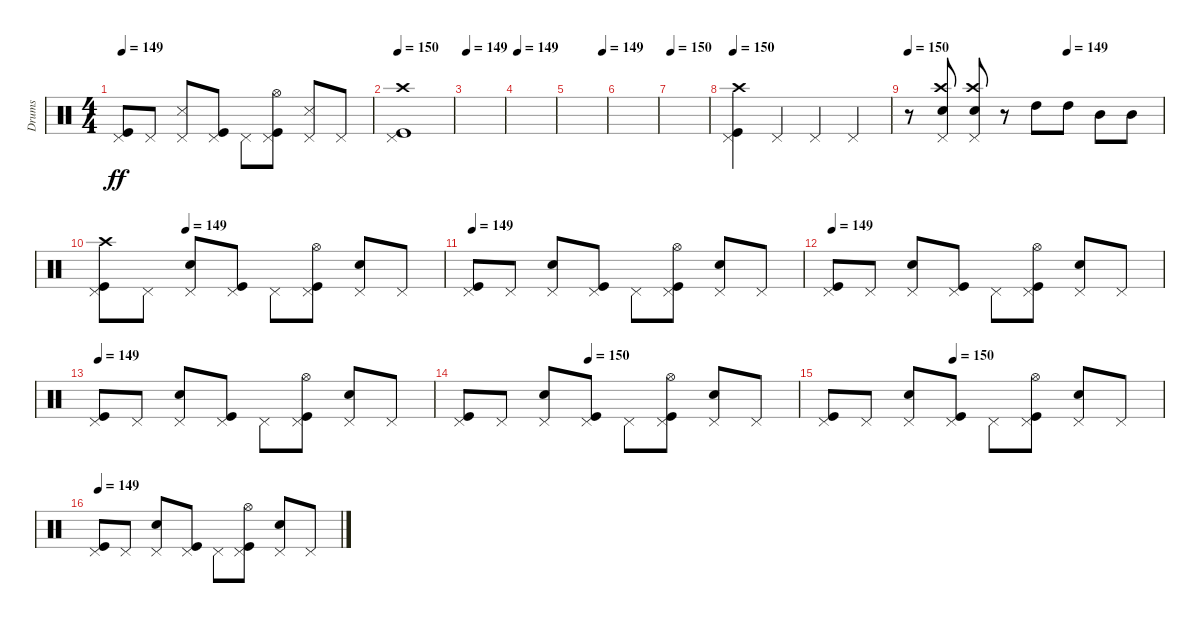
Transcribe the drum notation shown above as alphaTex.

\track ("Drums" "Drums") {instrument percussion}
\staff {score}
\articulation defaults
\ts (4 4)
\tempo 149
\clef neutral
\ks c
("Kick (hit)" "Pedal Hi-Hat (hit)").8{dy ff} "Pedal Hi-Hat (hit)".8 ("Pedal Hi-Hat (hit)" "Metronome (hit)").8 ("Kick (hit)" "Pedal Hi-Hat (hit)").8 "Pedal Hi-Hat (hit)".8 ("Kick (hit)" "Pedal Hi-Hat (hit)" "Hi-Hat (open)").8 ("Pedal Hi-Hat (hit)" "Metronome (hit)").8 "Pedal Hi-Hat (hit)".8 |
\tempo 150
("Kick (hit)" "Pedal Hi-Hat (hit)" "Crash high (hit)").1 |
\tempo 149
|
\tempo 149
|
\tempo (149 0.90625)
|
|
\tempo 150
|
\tempo 150
("Kick (hit)" "Pedal Hi-Hat (hit)" "Crash high (hit)").4 "Pedal Hi-Hat (hit)".4 "Pedal Hi-Hat (hit)".4 "Pedal Hi-Hat (hit)".4 |
\tempo 150
\tempo (149 0.625)
r.8 ("Pedal Hi-Hat (hit)" "Snare (hit) 2" "Crash high (hit)").8 ("Pedal Hi-Hat (hit)" "Snare (hit) 2" "Crash high (hit)").8 r.8 "High Tom (hit)".8 "High Tom (hit)".8 "Mid Tom (hit)".8 "Mid Tom (hit)".8 |
\tempo (149 0.25)
("Kick (hit)" "Pedal Hi-Hat (hit)" "Crash high (hit)").8 "Pedal Hi-Hat (hit)".8 ("Pedal Hi-Hat (hit)" "Snare (hit) 2").8 ("Kick (hit)" "Pedal Hi-Hat (hit)").8 "Pedal Hi-Hat (hit)".8 ("Kick (hit)" "Pedal Hi-Hat (hit)" "Hi-Hat (open)").8 ("Pedal Hi-Hat (hit)" "Snare (hit) 2").8 "Pedal Hi-Hat (hit)".8 |
\tempo 149
("Kick (hit)" "Pedal Hi-Hat (hit)").8 "Pedal Hi-Hat (hit)".8 ("Pedal Hi-Hat (hit)" "Snare (hit) 2").8 ("Kick (hit)" "Pedal Hi-Hat (hit)").8 "Pedal Hi-Hat (hit)".8 ("Kick (hit)" "Pedal Hi-Hat (hit)" "Hi-Hat (open)").8 ("Pedal Hi-Hat (hit)" "Snare (hit) 2").8 "Pedal Hi-Hat (hit)".8 |
\tempo 149
("Kick (hit)" "Pedal Hi-Hat (hit)").8 "Pedal Hi-Hat (hit)".8 ("Pedal Hi-Hat (hit)" "Snare (hit) 2").8 ("Kick (hit)" "Pedal Hi-Hat (hit)").8 "Pedal Hi-Hat (hit)".8 ("Kick (hit)" "Pedal Hi-Hat (hit)" "Hi-Hat (open)").8 ("Pedal Hi-Hat (hit)" "Snare (hit) 2").8 "Pedal Hi-Hat (hit)".8 |
\tempo 149
("Kick (hit)" "Pedal Hi-Hat (hit)").8 "Pedal Hi-Hat (hit)".8 ("Pedal Hi-Hat (hit)" "Snare (hit) 2").8 ("Kick (hit)" "Pedal Hi-Hat (hit)").8 "Pedal Hi-Hat (hit)".8 ("Kick (hit)" "Pedal Hi-Hat (hit)" "Hi-Hat (open)").8 ("Pedal Hi-Hat (hit)" "Snare (hit) 2").8 "Pedal Hi-Hat (hit)".8 |
\tempo (150 0.375)
("Kick (hit)" "Pedal Hi-Hat (hit)").8 "Pedal Hi-Hat (hit)".8 ("Pedal Hi-Hat (hit)" "Snare (hit) 2").8 ("Kick (hit)" "Pedal Hi-Hat (hit)").8 "Pedal Hi-Hat (hit)".8 ("Kick (hit)" "Pedal Hi-Hat (hit)" "Hi-Hat (open)").8 ("Pedal Hi-Hat (hit)" "Snare (hit) 2").8 "Pedal Hi-Hat (hit)".8 |
\tempo (150 0.375)
("Kick (hit)" "Pedal Hi-Hat (hit)").8 "Pedal Hi-Hat (hit)".8 ("Pedal Hi-Hat (hit)" "Snare (hit) 2").8 ("Kick (hit)" "Pedal Hi-Hat (hit)").8 "Pedal Hi-Hat (hit)".8 ("Kick (hit)" "Pedal Hi-Hat (hit)" "Hi-Hat (open)").8 ("Pedal Hi-Hat (hit)" "Snare (hit) 2").8 "Pedal Hi-Hat (hit)".8 |
\tempo 149
("Kick (hit)" "Pedal Hi-Hat (hit)").8 "Pedal Hi-Hat (hit)".8 ("Pedal Hi-Hat (hit)" "Snare (hit) 2").8 ("Kick (hit)" "Pedal Hi-Hat (hit)").8 "Pedal Hi-Hat (hit)".8 ("Kick (hit)" "Pedal Hi-Hat (hit)" "Hi-Hat (open)").8 ("Pedal Hi-Hat (hit)" "Snare (hit) 2").8 "Pedal Hi-Hat (hit)".8
